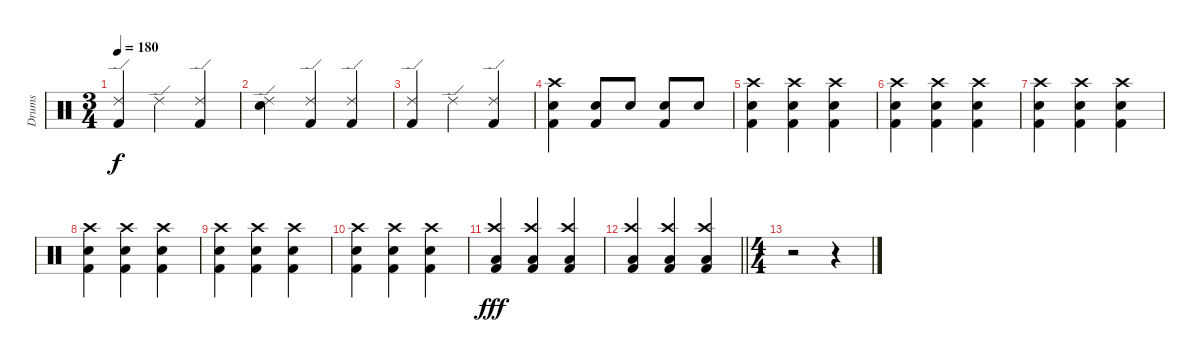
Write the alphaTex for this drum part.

\track ("Drums" "Drums") {instrument percussion}
\staff {score}
\articulation defaults
\ts (3 4)
\tempo 180
\clef neutral
\ks c
("Ride (edge) 2" "Kick (hit) 2").4{dy f} "Ride (edge) 2".4 ("Ride (edge) 2" "Kick (hit) 2").4 |
("Ride (edge) 2" "Electric Snare (hit)").4 ("Ride (edge) 2" "Kick (hit) 2").4 ("Ride (edge) 2" "Kick (hit) 2").4 |
("Ride (edge) 2" "Kick (hit) 2").4 "Ride (edge) 2".4 ("Ride (edge) 2" "Kick (hit) 2").4 |
("Crash high (hit)" "Electric Snare (hit)" "Kick (hit) 2").4 ("Electric Snare (hit)" "Kick (hit) 2").8 "Electric Snare (hit)".8 ("Electric Snare (hit)" "Kick (hit) 2").8 "Electric Snare (hit)".8 |
("Crash high (hit)" "Electric Snare (hit)" "Kick (hit) 2").4 ("Crash high (hit)" "Electric Snare (hit)" "Kick (hit) 2").4 ("Crash high (hit)" "Electric Snare (hit)" "Kick (hit) 2").4 |
("Crash high (hit)" "Electric Snare (hit)" "Kick (hit) 2").4 ("Crash high (hit)" "Electric Snare (hit)" "Kick (hit) 2").4 ("Crash high (hit)" "Electric Snare (hit)" "Kick (hit) 2").4 |
("Crash high (hit)" "Electric Snare (hit)" "Kick (hit) 2").4 ("Crash high (hit)" "Electric Snare (hit)" "Kick (hit) 2").4 ("Crash high (hit)" "Electric Snare (hit)" "Kick (hit) 2").4 |
("Crash high (hit)" "Electric Snare (hit)" "Kick (hit) 2").4 ("Crash high (hit)" "Electric Snare (hit)" "Kick (hit) 2").4 ("Crash high (hit)" "Electric Snare (hit)" "Kick (hit) 2").4 |
("Crash high (hit)" "Electric Snare (hit)" "Kick (hit) 2").4 ("Crash high (hit)" "Electric Snare (hit)" "Kick (hit) 2").4 ("Crash high (hit)" "Electric Snare (hit)" "Kick (hit) 2").4 |
("Crash high (hit)" "Electric Snare (hit)" "Kick (hit) 2").4 ("Crash high (hit)" "Electric Snare (hit)" "Kick (hit) 2").4 ("Crash high (hit)" "Electric Snare (hit)" "Kick (hit) 2").4 |
("Crash high (hit)" "Low Floor Tom (hit)" "Kick (hit) 2").4{dy fff} ("Crash high (hit)" "Low Floor Tom (hit)" "Kick (hit) 2").4 ("Crash high (hit)" "Low Floor Tom (hit)" "Kick (hit) 2").4 |
\barLineRight lightlight
("Crash high (hit)" "Low Floor Tom (hit)" "Kick (hit) 2").4 ("Crash high (hit)" "Low Floor Tom (hit)" "Kick (hit) 2").4 ("Crash high (hit)" "Low Floor Tom (hit)" "Kick (hit) 2").4 |
\ts (4 4)
r.2 r.4
